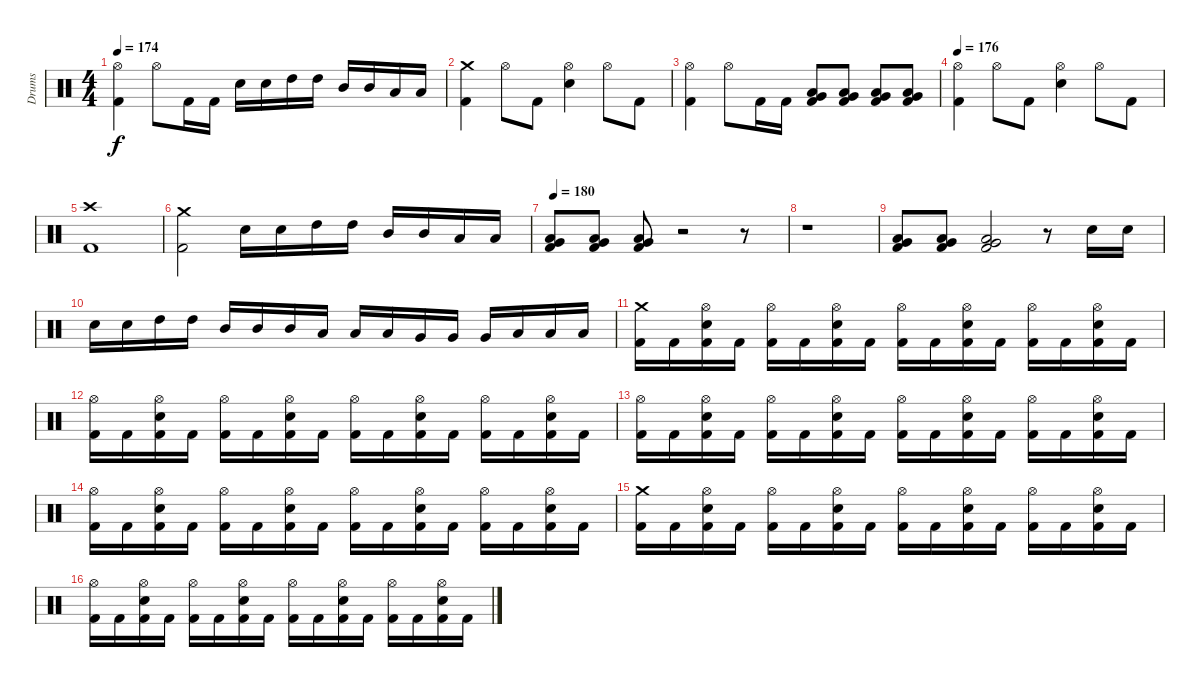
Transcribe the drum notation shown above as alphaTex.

\track ("Drums" "Drums") {instrument percussion}
\staff {score}
\articulation defaults
\ts (4 4)
\tempo 174
\clef neutral
\ks c
("Kick (hit) 2" "Hi-Hat (open)").4{dy f} "Hi-Hat (open)".8 "Kick (hit) 2".16 "Kick (hit) 2".16 "Electric Snare (hit)".16 "Electric Snare (hit)".16 "High Tom (hit)".16 "High Tom (hit)".16 "Mid Tom (hit)".16 "Mid Tom (hit)".16 "Low Tom (hit)".16 "Low Tom (hit)".16 |
("Kick (hit) 2" "Crash medium (hit)").4 "Hi-Hat (open)".8 "Kick (hit) 2".8 ("Electric Snare (hit)" "Hi-Hat (open)").4 "Hi-Hat (open)".8 "Kick (hit) 2".8 |
("Kick (hit) 2" "Hi-Hat (open)").4 "Hi-Hat (open)".8 "Kick (hit) 2".16 "Kick (hit) 2".16 ("Kick (hit) 2" "Low Tom (hit)" "Very Low Tom (hit)").8 ("Kick (hit) 2" "Low Tom (hit)" "Very Low Tom (hit)").8 ("Kick (hit) 2" "Low Tom (hit)" "Very Low Tom (hit)").8 ("Kick (hit) 2" "Low Tom (hit)" "Very Low Tom (hit)").8 |
\tempo 176
("Kick (hit) 2" "Hi-Hat (open)").4 "Hi-Hat (open)".8 "Kick (hit) 2".8 ("Electric Snare (hit)" "Hi-Hat (open)").4 "Hi-Hat (open)".8 "Kick (hit) 2".8 |
("Kick (hit) 2" "Crash high (hit)").1 |
("Kick (hit) 2" "Crash medium (hit)").2 "Electric Snare (hit)".16 "Electric Snare (hit)".16 "High Tom (hit)".16 "High Tom (hit)".16 "Mid Tom (hit)".16 "Mid Tom (hit)".16 "Low Tom (hit)".16 "Low Tom (hit)".16 |
\tempo 180
("Kick (hit) 2" "Low Tom (hit)" "Very Low Tom (hit)").8 ("Kick (hit) 2" "Low Tom (hit)" "Very Low Tom (hit)").8 ("Kick (hit) 2" "Low Tom (hit)" "Very Low Tom (hit)").8 r.2 r.8 |
r.1 |
("Kick (hit) 2" "Low Tom (hit)" "Very Low Tom (hit)").8 ("Kick (hit) 2" "Low Tom (hit)" "Very Low Tom (hit)").8 ("Kick (hit) 2" "Low Tom (hit)" "Very Low Tom (hit)").2 r.8 "Electric Snare (hit)".16 "Electric Snare (hit)".16 |
"Electric Snare (hit)".16 "Electric Snare (hit)".16 "High Tom (hit)".16 "High Tom (hit)".16 "Mid Tom (hit)".16 "Mid Tom (hit)".16 "Mid Tom (hit)".16 "Low Tom (hit)".16 "Low Tom (hit)".16 "Low Tom (hit)".16 "Very Low Tom (hit)".16 "Very Low Tom (hit)".16 "Very Low Tom (hit)".16 "Low Floor Tom (hit)".16 "Low Floor Tom (hit)".16 "Low Floor Tom (hit)".16 |
("Kick (hit) 2" "Crash medium (hit)").16 "Kick (hit) 2".16 ("Kick (hit) 2" "Electric Snare (hit)" "Hi-Hat (open)").16 "Kick (hit) 2".16 ("Kick (hit) 2" "Hi-Hat (open)").16 "Kick (hit) 2".16 ("Kick (hit) 2" "Electric Snare (hit)" "Hi-Hat (open)").16 "Kick (hit) 2".16 ("Kick (hit) 2" "Hi-Hat (open)").16 "Kick (hit) 2".16 ("Kick (hit) 2" "Electric Snare (hit)" "Hi-Hat (open)").16 "Kick (hit) 2".16 ("Kick (hit) 2" "Hi-Hat (open)").16 "Kick (hit) 2".16 ("Kick (hit) 2" "Electric Snare (hit)" "Hi-Hat (open)").16 "Kick (hit) 2".16 |
("Kick (hit) 2" "Hi-Hat (open)").16 "Kick (hit) 2".16 ("Kick (hit) 2" "Electric Snare (hit)" "Hi-Hat (open)").16 "Kick (hit) 2".16 ("Kick (hit) 2" "Hi-Hat (open)").16 "Kick (hit) 2".16 ("Kick (hit) 2" "Electric Snare (hit)" "Hi-Hat (open)").16 "Kick (hit) 2".16 ("Kick (hit) 2" "Hi-Hat (open)").16 "Kick (hit) 2".16 ("Kick (hit) 2" "Electric Snare (hit)" "Hi-Hat (open)").16 "Kick (hit) 2".16 ("Kick (hit) 2" "Hi-Hat (open)").16 "Kick (hit) 2".16 ("Kick (hit) 2" "Electric Snare (hit)" "Hi-Hat (open)").16 "Kick (hit) 2".16 |
("Kick (hit) 2" "Hi-Hat (open)").16 "Kick (hit) 2".16 ("Kick (hit) 2" "Electric Snare (hit)" "Hi-Hat (open)").16 "Kick (hit) 2".16 ("Kick (hit) 2" "Hi-Hat (open)").16 "Kick (hit) 2".16 ("Kick (hit) 2" "Electric Snare (hit)" "Hi-Hat (open)").16 "Kick (hit) 2".16 ("Kick (hit) 2" "Hi-Hat (open)").16 "Kick (hit) 2".16 ("Kick (hit) 2" "Electric Snare (hit)" "Hi-Hat (open)").16 "Kick (hit) 2".16 ("Kick (hit) 2" "Hi-Hat (open)").16 "Kick (hit) 2".16 ("Kick (hit) 2" "Electric Snare (hit)" "Hi-Hat (open)").16 "Kick (hit) 2".16 |
("Kick (hit) 2" "Hi-Hat (open)").16 "Kick (hit) 2".16 ("Kick (hit) 2" "Electric Snare (hit)" "Hi-Hat (open)").16 "Kick (hit) 2".16 ("Kick (hit) 2" "Hi-Hat (open)").16 "Kick (hit) 2".16 ("Kick (hit) 2" "Electric Snare (hit)" "Hi-Hat (open)").16 "Kick (hit) 2".16 ("Kick (hit) 2" "Hi-Hat (open)").16 "Kick (hit) 2".16 ("Kick (hit) 2" "Electric Snare (hit)" "Hi-Hat (open)").16 "Kick (hit) 2".16 ("Kick (hit) 2" "Hi-Hat (open)").16 "Kick (hit) 2".16 ("Kick (hit) 2" "Electric Snare (hit)" "Hi-Hat (open)").16 "Kick (hit) 2".16 |
("Kick (hit) 2" "Crash medium (hit)").16 "Kick (hit) 2".16 ("Kick (hit) 2" "Electric Snare (hit)" "Hi-Hat (open)").16 "Kick (hit) 2".16 ("Kick (hit) 2" "Hi-Hat (open)").16 "Kick (hit) 2".16 ("Kick (hit) 2" "Electric Snare (hit)" "Hi-Hat (open)").16 "Kick (hit) 2".16 ("Kick (hit) 2" "Hi-Hat (open)").16 "Kick (hit) 2".16 ("Kick (hit) 2" "Electric Snare (hit)" "Hi-Hat (open)").16 "Kick (hit) 2".16 ("Kick (hit) 2" "Hi-Hat (open)").16 "Kick (hit) 2".16 ("Kick (hit) 2" "Electric Snare (hit)" "Hi-Hat (open)").16 "Kick (hit) 2".16 |
("Kick (hit) 2" "Hi-Hat (open)").16 "Kick (hit) 2".16 ("Kick (hit) 2" "Electric Snare (hit)" "Hi-Hat (open)").16 "Kick (hit) 2".16 ("Kick (hit) 2" "Hi-Hat (open)").16 "Kick (hit) 2".16 ("Kick (hit) 2" "Electric Snare (hit)" "Hi-Hat (open)").16 "Kick (hit) 2".16 ("Kick (hit) 2" "Hi-Hat (open)").16 "Kick (hit) 2".16 ("Kick (hit) 2" "Electric Snare (hit)" "Hi-Hat (open)").16 "Kick (hit) 2".16 ("Kick (hit) 2" "Hi-Hat (open)").16 "Kick (hit) 2".16 ("Kick (hit) 2" "Electric Snare (hit)" "Hi-Hat (open)").16 "Kick (hit) 2".16
